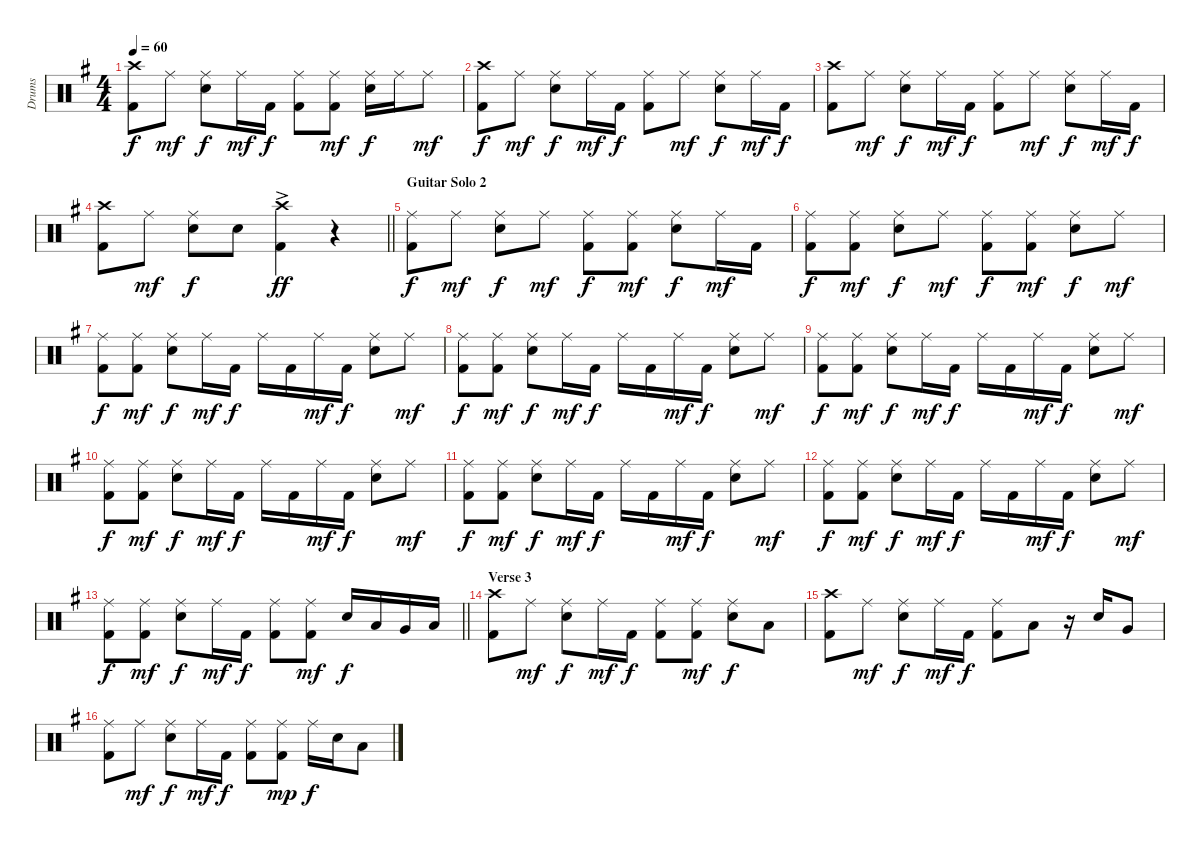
\track ("Drums" "Drums") {instrument percussion}
\staff {score}
\articulation defaults
\ts (4 4)
\tempo 60
\clef neutral
\ks g
("Crash high (hit)" "Kick (hit) 2").8{dy f} "Ride (middle)".8{dy mf} ("Ride (middle)" "Electric Snare (hit)").8{dy f} "Ride (middle)".16{dy mf} "Kick (hit) 2".16{dy f} ("Ride (middle)" "Kick (hit) 2").8 ("Ride (middle)" "Kick (hit) 2").8{dy mf} ("Ride (middle)" "Electric Snare (hit)").16{dy f} "Ride (middle)".16 "Ride (middle)".8{dy mf} |
("Crash high (hit)" "Kick (hit) 2").8{dy f} "Ride (middle)".8{dy mf} ("Ride (middle)" "Electric Snare (hit)").8{dy f} "Ride (middle)".16{dy mf} "Kick (hit) 2".16{dy f} ("Ride (middle)" "Kick (hit) 2").8 "Ride (middle)".8{dy mf} ("Ride (middle)" "Electric Snare (hit)").8{dy f} "Ride (middle)".16{dy mf} "Kick (hit) 2".16{dy f} |
("Crash high (hit)" "Kick (hit) 2").8 "Ride (middle)".8{dy mf} ("Ride (middle)" "Electric Snare (hit)").8{dy f} "Ride (middle)".16{dy mf} "Kick (hit) 2".16{dy f} ("Ride (middle)" "Kick (hit) 2").8 "Ride (middle)".8{dy mf} ("Ride (middle)" "Electric Snare (hit)").8{dy f} "Ride (middle)".16{dy mf} "Kick (hit) 2".16{dy f} |
\barLineRight lightlight
("Crash high (hit)" "Kick (hit) 2").8 "Ride (middle)".8{dy mf} ("Ride (middle)" "Electric Snare (hit)").8{dy f} "Electric Snare (hit)".8 ("Crash high (hit)"{ac} "Kick (hit) 2").4{dy ff} r.4 |
\section ("" "Guitar Solo 2")
("Ride (middle)" "Kick (hit) 2").8{dy f} "Ride (middle)".8{dy mf} ("Ride (middle)" "Electric Snare (hit)").8{dy f} "Ride (middle)".8{dy mf} ("Ride (middle)" "Kick (hit) 2").8{dy f} ("Ride (middle)" "Kick (hit) 2").8{dy mf} ("Ride (middle)" "Electric Snare (hit)").8{dy f} "Ride (middle)".16{dy mf} "Kick (hit) 2".16 |
("Ride (middle)" "Kick (hit) 2").8{dy f} ("Ride (middle)" "Kick (hit) 2").8{dy mf} ("Ride (middle)" "Electric Snare (hit)").8{dy f} "Ride (middle)".8{dy mf} ("Ride (middle)" "Kick (hit) 2").8{dy f} ("Ride (middle)" "Kick (hit) 2").8{dy mf} ("Ride (middle)" "Electric Snare (hit)").8{dy f} "Ride (middle)".8{dy mf} |
("Ride (middle)" "Kick (hit) 2").8{dy f} ("Ride (middle)" "Kick (hit) 2").8{dy mf} ("Ride (middle)" "Electric Snare (hit)").8{dy f} "Ride (middle)".16{dy mf} "Kick (hit) 2".16{dy f} "Ride (middle)".16 "Kick (hit) 2".16 "Ride (middle)".16{dy mf} "Kick (hit) 2".16{dy f} ("Ride (middle)" "Electric Snare (hit)").8 "Ride (middle)".8{dy mf} |
("Ride (middle)" "Kick (hit) 2").8{dy f} ("Ride (middle)" "Kick (hit) 2").8{dy mf} ("Ride (middle)" "Electric Snare (hit)").8{dy f} "Ride (middle)".16{dy mf} "Kick (hit) 2".16{dy f} "Ride (middle)".16 "Kick (hit) 2".16 "Ride (middle)".16{dy mf} "Kick (hit) 2".16{dy f} ("Ride (middle)" "Electric Snare (hit)").8 "Ride (middle)".8{dy mf} |
("Ride (middle)" "Kick (hit) 2").8{dy f} ("Ride (middle)" "Kick (hit) 2").8{dy mf} ("Ride (middle)" "Electric Snare (hit)").8{dy f} "Ride (middle)".16{dy mf} "Kick (hit) 2".16{dy f} "Ride (middle)".16 "Kick (hit) 2".16 "Ride (middle)".16{dy mf} "Kick (hit) 2".16{dy f} ("Ride (middle)" "Electric Snare (hit)").8 "Ride (middle)".8{dy mf} |
("Ride (middle)" "Kick (hit) 2").8{dy f} ("Ride (middle)" "Kick (hit) 2").8{dy mf} ("Ride (middle)" "Electric Snare (hit)").8{dy f} "Ride (middle)".16{dy mf} "Kick (hit) 2".16{dy f} "Ride (middle)".16 "Kick (hit) 2".16 "Ride (middle)".16{dy mf} "Kick (hit) 2".16{dy f} ("Ride (middle)" "Electric Snare (hit)").8 "Ride (middle)".8{dy mf} |
("Ride (middle)" "Kick (hit) 2").8{dy f} ("Ride (middle)" "Kick (hit) 2").8{dy mf} ("Ride (middle)" "Electric Snare (hit)").8{dy f} "Ride (middle)".16{dy mf} "Kick (hit) 2".16{dy f} "Ride (middle)".16 "Kick (hit) 2".16 "Ride (middle)".16{dy mf} "Kick (hit) 2".16{dy f} ("Ride (middle)" "Electric Snare (hit)").8 "Ride (middle)".8{dy mf} |
("Ride (middle)" "Kick (hit) 2").8{dy f} ("Ride (middle)" "Kick (hit) 2").8{dy mf} ("Ride (middle)" "Electric Snare (hit)").8{dy f} "Ride (middle)".16{dy mf} "Kick (hit) 2".16{dy f} "Ride (middle)".16 "Kick (hit) 2".16 "Ride (middle)".16{dy mf} "Kick (hit) 2".16{dy f} ("Ride (middle)" "Electric Snare (hit)").8 "Ride (middle)".8{dy mf} |
\barLineRight lightlight
("Ride (middle)" "Kick (hit) 2").8{dy f} ("Ride (middle)" "Kick (hit) 2").8{dy mf} ("Ride (middle)" "Electric Snare (hit)").8{dy f} "Ride (middle)".16{dy mf} "Kick (hit) 2".16{dy f} ("Ride (middle)" "Kick (hit) 2").8 ("Ride (middle)" "Kick (hit) 2").8{dy mf} "Electric Snare (hit)".16{dy f} "Low Tom (hit)".16 "Very Low Tom (hit)".16 "Low Floor Tom (hit)".16 |
\section ("" "Verse 3")
("Crash high (hit)" "Kick (hit) 2").8 "Ride (middle)".8{dy mf} ("Ride (middle)" "Electric Snare (hit)").8{dy f} "Ride (middle)".16{dy mf} "Kick (hit) 2".16{dy f} ("Ride (middle)" "Kick (hit) 2").8 ("Ride (middle)" "Kick (hit) 2").8{dy mf} ("Ride (middle)" "Electric Snare (hit)").8{dy f} "Low Tom (hit)".8 |
("Crash high (hit)" "Kick (hit) 2").8 "Ride (middle)".8{dy mf} ("Ride (middle)" "Electric Snare (hit)").8{dy f} "Ride (middle)".16{dy mf} "Kick (hit) 2".16{dy f} ("Ride (middle)" "Kick (hit) 2").8 "Low Tom (hit)".8 r.16 "Electric Snare (hit)".16 "Very Low Tom (hit)".8 |
("Ride (middle)" "Kick (hit) 2").8 "Ride (middle)".8{dy mf} ("Ride (middle)" "Electric Snare (hit)").8{dy f} "Ride (middle)".16{dy mf} "Kick (hit) 2".16{dy f} ("Ride (middle)" "Kick (hit) 2").8 ("Ride (middle)" "Kick (hit) 2").8{dy mp} "Ride (middle)".16{dy f} "Electric Snare (hit)".16 "Low Tom (hit)".8
